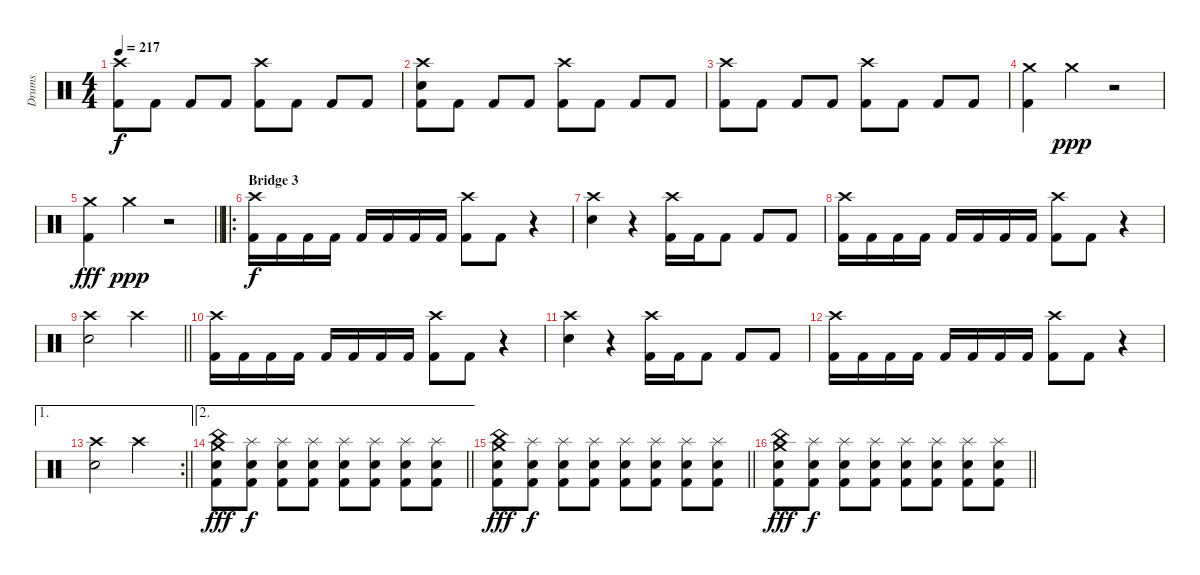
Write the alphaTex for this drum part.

\track ("Drums" "Drums") {instrument percussion}
\staff {score}
\articulation defaults
\ts (4 4)
\tempo 217
\clef neutral
\ks c
("Crash high (hit)" "Kick (hit) 2").8{dy f} "Kick (hit) 2".8 "Kick (hit) 2".8 "Kick (hit) 2".8 ("Crash high (hit)" "Kick (hit) 2").8 "Kick (hit) 2".8 "Kick (hit) 2".8 "Kick (hit) 2".8 |
("Crash high (hit)" "Electric Snare (hit)" "Kick (hit) 2").8 "Kick (hit) 2".8 "Kick (hit) 2".8 "Kick (hit) 2".8 ("Crash high (hit)" "Kick (hit) 2").8 "Kick (hit) 2".8 "Kick (hit) 2".8 "Kick (hit) 2".8 |
("Crash high (hit)" "Kick (hit) 2").8 "Kick (hit) 2".8 "Kick (hit) 2".8 "Kick (hit) 2".8 ("Crash high (hit)" "Kick (hit) 2").8 "Kick (hit) 2".8 "Kick (hit) 2".8 "Kick (hit) 2".8 |
("Crash medium (hit)" "Kick (hit) 2").4 "Crash medium (hit)".4{dy ppp} r.2 |
\barLineRight lightlight
("Crash medium (hit)" "Kick (hit) 2").4{dy fff} "Crash medium (hit)".4{dy ppp} r.2 |
\ro
\section ("" "Bridge 3")
("Crash high (hit)" "Kick (hit) 2").16{dy f} "Kick (hit) 2".16 "Kick (hit) 2".16 "Kick (hit) 2".16 "Kick (hit) 2".16 "Kick (hit) 2".16 "Kick (hit) 2".16 "Kick (hit) 2".16 ("Crash high (hit)" "Kick (hit) 2").8 "Kick (hit) 2".8 r.4 |
("Crash high (hit)" "Electric Snare (hit)").4 r.4 ("Crash high (hit)" "Kick (hit) 2").16 "Kick (hit) 2".16 "Kick (hit) 2".8 "Kick (hit) 2".8 "Kick (hit) 2".8 |
("Crash high (hit)" "Kick (hit) 2").16 "Kick (hit) 2".16 "Kick (hit) 2".16 "Kick (hit) 2".16 "Kick (hit) 2".16 "Kick (hit) 2".16 "Kick (hit) 2".16 "Kick (hit) 2".16 ("Crash high (hit)" "Kick (hit) 2").8 "Kick (hit) 2".8 r.4 |
\barLineRight lightlight
("Crash high (hit)" "Electric Snare (hit)").2 "Crash high (hit)".2 |
("Crash high (hit)" "Kick (hit) 2").16 "Kick (hit) 2".16 "Kick (hit) 2".16 "Kick (hit) 2".16 "Kick (hit) 2".16 "Kick (hit) 2".16 "Kick (hit) 2".16 "Kick (hit) 2".16 ("Crash high (hit)" "Kick (hit) 2").8 "Kick (hit) 2".8 r.4 |
("Crash high (hit)" "Electric Snare (hit)").4 r.4 ("Crash high (hit)" "Kick (hit) 2").16 "Kick (hit) 2".16 "Kick (hit) 2".8 "Kick (hit) 2".8 "Kick (hit) 2".8 |
("Crash high (hit)" "Kick (hit) 2").16 "Kick (hit) 2".16 "Kick (hit) 2".16 "Kick (hit) 2".16 "Kick (hit) 2".16 "Kick (hit) 2".16 "Kick (hit) 2".16 "Kick (hit) 2".16 ("Crash high (hit)" "Kick (hit) 2").8 "Kick (hit) 2".8 r.4 |
\ae 1
\rc 2
\barLineRight lightlight
("Crash high (hit)" "Electric Snare (hit)").2 "Crash high (hit)".2 |
\ae 2
\barLineRight lightlight
("Crash medium (hit)" "China (hit)" "Electric Snare (hit)" "Kick (hit) 2").8{dy fff} ("Splash (hit)" "Electric Snare (hit)" "Kick (hit) 2").8{dy f} ("Splash (hit)" "Electric Snare (hit)" "Kick (hit) 2").8 ("Splash (hit)" "Electric Snare (hit)" "Kick (hit) 2").8 ("Splash (hit)" "Electric Snare (hit)" "Kick (hit) 2").8 ("Splash (hit)" "Electric Snare (hit)" "Kick (hit) 2").8 ("Splash (hit)" "Electric Snare (hit)" "Kick (hit) 2").8 ("Splash (hit)" "Electric Snare (hit)" "Kick (hit) 2").8 |
\barLineRight lightlight
("Crash medium (hit)" "China (hit)" "Electric Snare (hit)" "Kick (hit) 2").8{dy fff} ("Splash (hit)" "Electric Snare (hit)" "Kick (hit) 2").8{dy f} ("Splash (hit)" "Electric Snare (hit)" "Kick (hit) 2").8 ("Splash (hit)" "Electric Snare (hit)" "Kick (hit) 2").8 ("Splash (hit)" "Electric Snare (hit)" "Kick (hit) 2").8 ("Splash (hit)" "Electric Snare (hit)" "Kick (hit) 2").8 ("Splash (hit)" "Electric Snare (hit)" "Kick (hit) 2").8 ("Splash (hit)" "Electric Snare (hit)" "Kick (hit) 2").8 |
\barLineRight lightlight
("Crash medium (hit)" "China (hit)" "Electric Snare (hit)" "Kick (hit) 2").8{dy fff} ("Splash (hit)" "Electric Snare (hit)" "Kick (hit) 2").8{dy f} ("Splash (hit)" "Electric Snare (hit)" "Kick (hit) 2").8 ("Splash (hit)" "Electric Snare (hit)" "Kick (hit) 2").8 ("Splash (hit)" "Electric Snare (hit)" "Kick (hit) 2").8 ("Splash (hit)" "Electric Snare (hit)" "Kick (hit) 2").8 ("Splash (hit)" "Electric Snare (hit)" "Kick (hit) 2").8 ("Splash (hit)" "Electric Snare (hit)" "Kick (hit) 2").8
